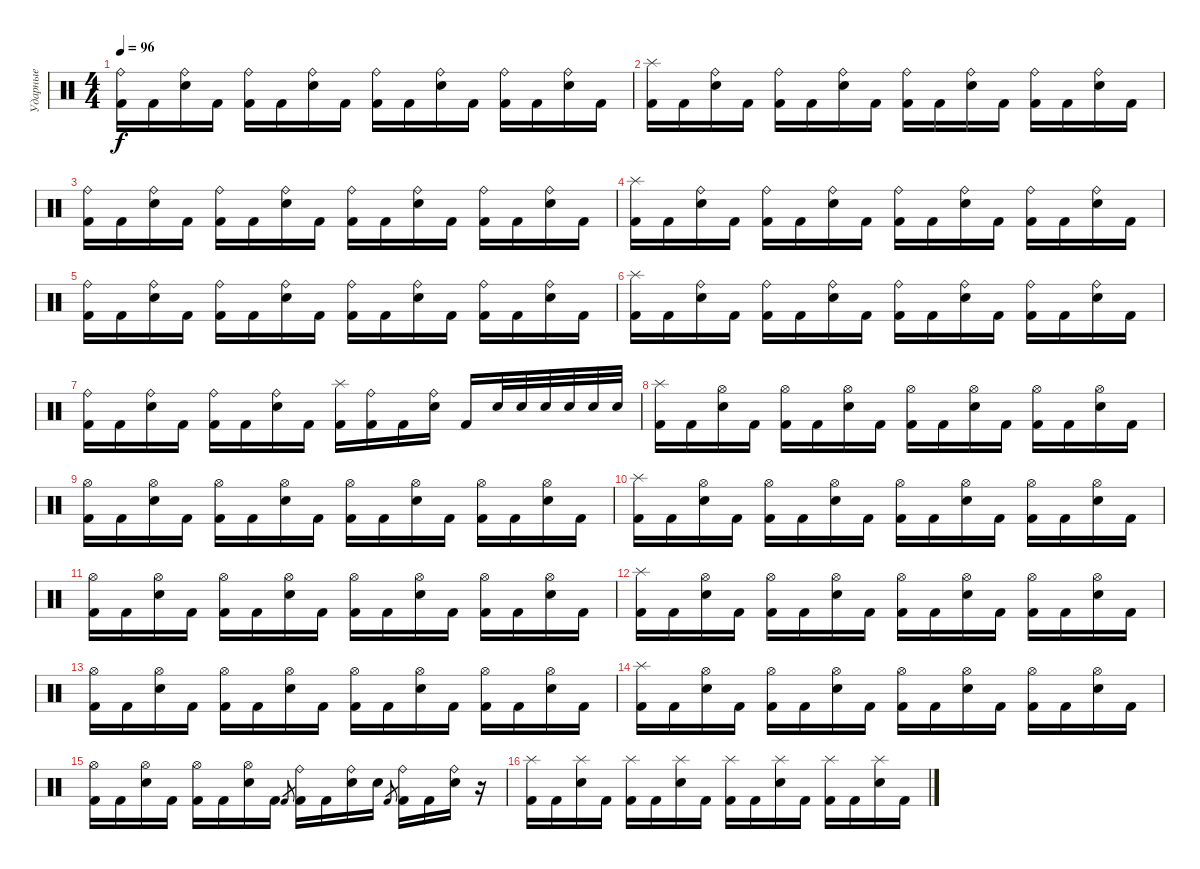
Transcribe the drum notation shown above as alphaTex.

\track ("Ударные" "Ударные") {instrument percussion}
\staff {score}
\articulation defaults
\ts (4 4)
\tempo 96
\clef neutral
\ks c
("Ride (bell)" "Kick (hit) 2").16{dy f} "Kick (hit) 2".16 ("Ride (bell)" "Electric Snare (hit)").16 "Kick (hit) 2".16 ("Ride (bell)" "Kick (hit) 2").16 "Kick (hit) 2".16 ("Ride (bell)" "Electric Snare (hit)").16 "Kick (hit) 2".16 ("Ride (bell)" "Kick (hit) 2").16 "Kick (hit) 2".16 ("Ride (bell)" "Electric Snare (hit)").16 "Kick (hit) 2".16 ("Ride (bell)" "Kick (hit) 2").16 "Kick (hit) 2".16 ("Ride (bell)" "Electric Snare (hit)").16 "Kick (hit) 2".16 |
("Splash (hit)" "Kick (hit) 2").16 "Kick (hit) 2".16 ("Ride (bell)" "Electric Snare (hit)").16 "Kick (hit) 2".16 ("Ride (bell)" "Kick (hit) 2").16 "Kick (hit) 2".16 ("Ride (bell)" "Electric Snare (hit)").16 "Kick (hit) 2".16 ("Ride (bell)" "Kick (hit) 2").16 "Kick (hit) 2".16 ("Ride (bell)" "Electric Snare (hit)").16 "Kick (hit) 2".16 ("Ride (bell)" "Kick (hit) 2").16 "Kick (hit) 2".16 ("Ride (bell)" "Electric Snare (hit)").16 "Kick (hit) 2".16 |
("Ride (bell)" "Kick (hit) 2").16 "Kick (hit) 2".16 ("Ride (bell)" "Electric Snare (hit)").16 "Kick (hit) 2".16 ("Ride (bell)" "Kick (hit) 2").16 "Kick (hit) 2".16 ("Ride (bell)" "Electric Snare (hit)").16 "Kick (hit) 2".16 ("Ride (bell)" "Kick (hit) 2").16 "Kick (hit) 2".16 ("Ride (bell)" "Electric Snare (hit)").16 "Kick (hit) 2".16 ("Ride (bell)" "Kick (hit) 2").16 "Kick (hit) 2".16 ("Ride (bell)" "Electric Snare (hit)").16 "Kick (hit) 2".16 |
("Splash (hit)" "Kick (hit) 2").16 "Kick (hit) 2".16 ("Ride (bell)" "Electric Snare (hit)").16 "Kick (hit) 2".16 ("Ride (bell)" "Kick (hit) 2").16 "Kick (hit) 2".16 ("Ride (bell)" "Electric Snare (hit)").16 "Kick (hit) 2".16 ("Ride (bell)" "Kick (hit) 2").16 "Kick (hit) 2".16 ("Ride (bell)" "Electric Snare (hit)").16 "Kick (hit) 2".16 ("Ride (bell)" "Kick (hit) 2").16 "Kick (hit) 2".16 ("Ride (bell)" "Electric Snare (hit)").16 "Kick (hit) 2".16 |
("Ride (bell)" "Kick (hit) 2").16 "Kick (hit) 2".16 ("Ride (bell)" "Electric Snare (hit)").16 "Kick (hit) 2".16 ("Ride (bell)" "Kick (hit) 2").16 "Kick (hit) 2".16 ("Ride (bell)" "Electric Snare (hit)").16 "Kick (hit) 2".16 ("Ride (bell)" "Kick (hit) 2").16 "Kick (hit) 2".16 ("Ride (bell)" "Electric Snare (hit)").16 "Kick (hit) 2".16 ("Ride (bell)" "Kick (hit) 2").16 "Kick (hit) 2".16 ("Ride (bell)" "Electric Snare (hit)").16 "Kick (hit) 2".16 |
("Splash (hit)" "Kick (hit) 2").16 "Kick (hit) 2".16 ("Ride (bell)" "Electric Snare (hit)").16 "Kick (hit) 2".16 ("Ride (bell)" "Kick (hit) 2").16 "Kick (hit) 2".16 ("Ride (bell)" "Electric Snare (hit)").16 "Kick (hit) 2".16 ("Ride (bell)" "Kick (hit) 2").16 "Kick (hit) 2".16 ("Ride (bell)" "Electric Snare (hit)").16 "Kick (hit) 2".16 ("Ride (bell)" "Kick (hit) 2").16 "Kick (hit) 2".16 ("Ride (bell)" "Electric Snare (hit)").16 "Kick (hit) 2".16 |
("Ride (bell)" "Kick (hit) 2").16 "Kick (hit) 2".16 ("Ride (bell)" "Electric Snare (hit)").16 "Kick (hit) 2".16 ("Ride (bell)" "Kick (hit) 2").16 "Kick (hit) 2".16 ("Ride (bell)" "Electric Snare (hit)").16 "Kick (hit) 2".16 ("Splash (hit)" "Kick (hit) 2").16 ("Ride (bell)" "Kick (hit) 2").16 "Kick (hit) 2".16 ("Ride (bell)" "Electric Snare (hit)").16 "Kick (hit) 2".16 "Electric Snare (hit)".32 "Electric Snare (hit)".32 "Electric Snare (hit)".32 "Electric Snare (hit)".32 "Electric Snare (hit)".32 "Electric Snare (hit)".32 |
("Splash (hit)" "Kick (hit) 2").16 "Kick (hit) 2".16 ("Hi-Hat (open)" "Electric Snare (hit)").16 "Kick (hit) 2".16 ("Hi-Hat (open)" "Kick (hit) 2").16 "Kick (hit) 2".16 ("Hi-Hat (open)" "Electric Snare (hit)").16 "Kick (hit) 2".16 ("Hi-Hat (open)" "Kick (hit) 2").16 "Kick (hit) 2".16 ("Hi-Hat (open)" "Electric Snare (hit)").16 "Kick (hit) 2".16 ("Hi-Hat (open)" "Kick (hit) 2").16 "Kick (hit) 2".16 ("Hi-Hat (open)" "Electric Snare (hit)").16 "Kick (hit) 2".16 |
("Hi-Hat (open)" "Kick (hit) 2").16 "Kick (hit) 2".16 ("Hi-Hat (open)" "Electric Snare (hit)").16 "Kick (hit) 2".16 ("Hi-Hat (open)" "Kick (hit) 2").16 "Kick (hit) 2".16 ("Hi-Hat (open)" "Electric Snare (hit)").16 "Kick (hit) 2".16 ("Hi-Hat (open)" "Kick (hit) 2").16 "Kick (hit) 2".16 ("Hi-Hat (open)" "Electric Snare (hit)").16 "Kick (hit) 2".16 ("Hi-Hat (open)" "Kick (hit) 2").16 "Kick (hit) 2".16 ("Hi-Hat (open)" "Electric Snare (hit)").16 "Kick (hit) 2".16 |
("Splash (hit)" "Kick (hit) 2").16 "Kick (hit) 2".16 ("Hi-Hat (open)" "Electric Snare (hit)").16 "Kick (hit) 2".16 ("Hi-Hat (open)" "Kick (hit) 2").16 "Kick (hit) 2".16 ("Hi-Hat (open)" "Electric Snare (hit)").16 "Kick (hit) 2".16 ("Hi-Hat (open)" "Kick (hit) 2").16 "Kick (hit) 2".16 ("Hi-Hat (open)" "Electric Snare (hit)").16 "Kick (hit) 2".16 ("Hi-Hat (open)" "Kick (hit) 2").16 "Kick (hit) 2".16 ("Hi-Hat (open)" "Electric Snare (hit)").16 "Kick (hit) 2".16 |
("Hi-Hat (open)" "Kick (hit) 2").16 "Kick (hit) 2".16 ("Hi-Hat (open)" "Electric Snare (hit)").16 "Kick (hit) 2".16 ("Hi-Hat (open)" "Kick (hit) 2").16 "Kick (hit) 2".16 ("Hi-Hat (open)" "Electric Snare (hit)").16 "Kick (hit) 2".16 ("Hi-Hat (open)" "Kick (hit) 2").16 "Kick (hit) 2".16 ("Hi-Hat (open)" "Electric Snare (hit)").16 "Kick (hit) 2".16 ("Hi-Hat (open)" "Kick (hit) 2").16 "Kick (hit) 2".16 ("Hi-Hat (open)" "Electric Snare (hit)").16 "Kick (hit) 2".16 |
("Splash (hit)" "Kick (hit) 2").16 "Kick (hit) 2".16 ("Hi-Hat (open)" "Electric Snare (hit)").16 "Kick (hit) 2".16 ("Hi-Hat (open)" "Kick (hit) 2").16 "Kick (hit) 2".16 ("Hi-Hat (open)" "Electric Snare (hit)").16 "Kick (hit) 2".16 ("Hi-Hat (open)" "Kick (hit) 2").16 "Kick (hit) 2".16 ("Hi-Hat (open)" "Electric Snare (hit)").16 "Kick (hit) 2".16 ("Hi-Hat (open)" "Kick (hit) 2").16 "Kick (hit) 2".16 ("Hi-Hat (open)" "Electric Snare (hit)").16 "Kick (hit) 2".16 |
("Hi-Hat (open)" "Kick (hit) 2").16 "Kick (hit) 2".16 ("Hi-Hat (open)" "Electric Snare (hit)").16 "Kick (hit) 2".16 ("Hi-Hat (open)" "Kick (hit) 2").16 "Kick (hit) 2".16 ("Hi-Hat (open)" "Electric Snare (hit)").16 "Kick (hit) 2".16 ("Hi-Hat (open)" "Kick (hit) 2").16 "Kick (hit) 2".16 ("Hi-Hat (open)" "Electric Snare (hit)").16 "Kick (hit) 2".16 ("Hi-Hat (open)" "Kick (hit) 2").16 "Kick (hit) 2".16 ("Hi-Hat (open)" "Electric Snare (hit)").16 "Kick (hit) 2".16 |
("Splash (hit)" "Kick (hit) 2").16 "Kick (hit) 2".16 ("Hi-Hat (open)" "Electric Snare (hit)").16 "Kick (hit) 2".16 ("Hi-Hat (open)" "Kick (hit) 2").16 "Kick (hit) 2".16 ("Hi-Hat (open)" "Electric Snare (hit)").16 "Kick (hit) 2".16 ("Hi-Hat (open)" "Kick (hit) 2").16 "Kick (hit) 2".16 ("Hi-Hat (open)" "Electric Snare (hit)").16 "Kick (hit) 2".16 ("Hi-Hat (open)" "Kick (hit) 2").16 "Kick (hit) 2".16 ("Hi-Hat (open)" "Electric Snare (hit)").16 "Kick (hit) 2".16 |
("Hi-Hat (open)" "Kick (hit) 2").16 "Kick (hit) 2".16 ("Hi-Hat (open)" "Electric Snare (hit)").16 "Kick (hit) 2".16 ("Hi-Hat (open)" "Kick (hit) 2").16 "Kick (hit) 2".16 ("Hi-Hat (open)" "Electric Snare (hit)").16 "Kick (hit) 2".16 "Kick (hit) 2".8{gr} ("Ride (bell)" "Kick (hit) 2").16 "Kick (hit) 2".16 ("Ride (bell)" "Electric Snare (hit)").16 "Electric Snare (hit)".16 "Kick (hit) 2".8{gr} ("Ride (bell)" "Kick (hit) 2").16 "Kick (hit) 2".16 ("Ride (bell)" "Electric Snare (hit)").16 r.16 |
("Splash (hit)" "Kick (hit) 2").16 "Kick (hit) 2".16 ("Splash (hit)" "Electric Snare (hit)").16 "Kick (hit) 2".16 ("Splash (hit)" "Kick (hit) 2").16 "Kick (hit) 2".16 ("Splash (hit)" "Electric Snare (hit)").16 "Kick (hit) 2".16 ("Splash (hit)" "Kick (hit) 2").16 "Kick (hit) 2".16 ("Splash (hit)" "Electric Snare (hit)").16 "Kick (hit) 2".16 ("Splash (hit)" "Kick (hit) 2").16 "Kick (hit) 2".16 ("Splash (hit)" "Electric Snare (hit)").16 "Kick (hit) 2".16
